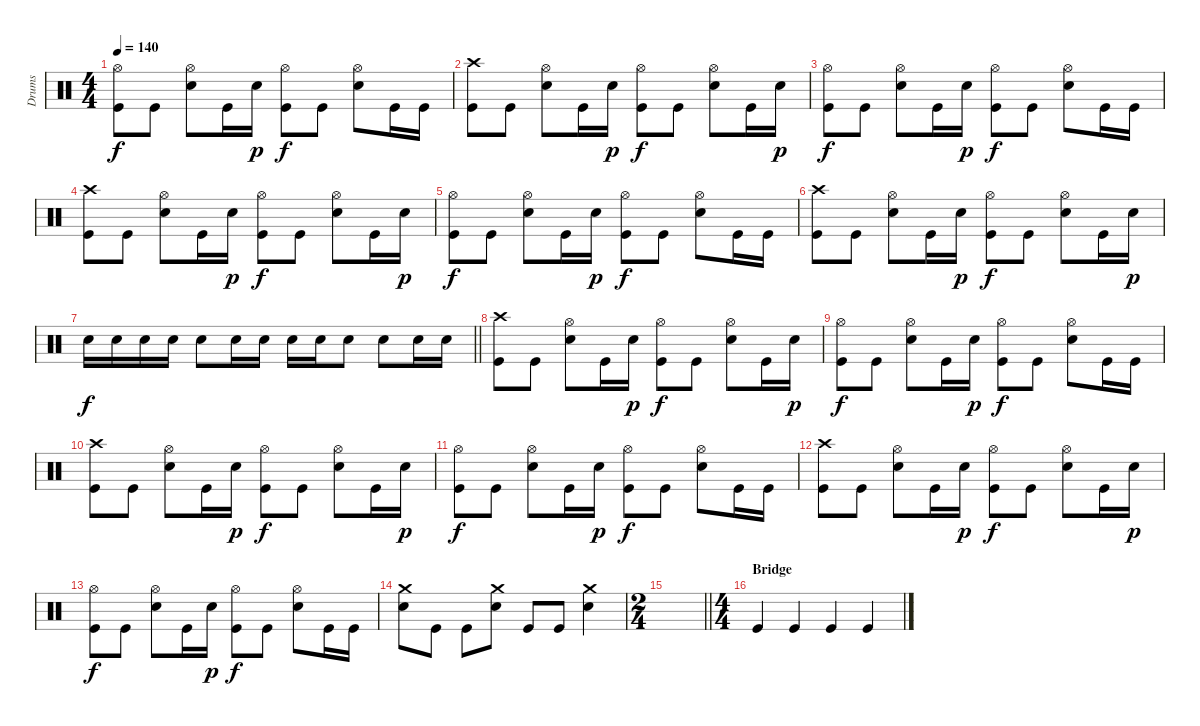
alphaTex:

\track ("Drums" "Drums") {instrument percussion}
\staff {score}
\articulation defaults
\ts (4 4)
\tempo 140
\clef neutral
\ks c
("Hi-Hat (open)" "Kick (hit)").8{dy f} "Kick (hit)".8 ("Hi-Hat (open)" "Electric Snare (hit)").8 "Kick (hit)".16 "Electric Snare (hit)".16{dy p} ("Hi-Hat (open)" "Kick (hit)").8{dy f} "Kick (hit)".8 ("Hi-Hat (open)" "Electric Snare (hit)").8 "Kick (hit)".16 "Kick (hit)".16 |
("Crash high (hit)" "Kick (hit)").8 "Kick (hit)".8 ("Hi-Hat (open)" "Electric Snare (hit)").8 "Kick (hit)".16 "Electric Snare (hit)".16{dy p} ("Hi-Hat (open)" "Kick (hit)").8{dy f} "Kick (hit)".8 ("Hi-Hat (open)" "Electric Snare (hit)").8 "Kick (hit)".16 "Electric Snare (hit)".16{dy p} |
("Hi-Hat (open)" "Kick (hit)").8{dy f} "Kick (hit)".8 ("Hi-Hat (open)" "Electric Snare (hit)").8 "Kick (hit)".16 "Electric Snare (hit)".16{dy p} ("Hi-Hat (open)" "Kick (hit)").8{dy f} "Kick (hit)".8 ("Hi-Hat (open)" "Electric Snare (hit)").8 "Kick (hit)".16 "Kick (hit)".16 |
("Crash high (hit)" "Kick (hit)").8 "Kick (hit)".8 ("Hi-Hat (open)" "Electric Snare (hit)").8 "Kick (hit)".16 "Electric Snare (hit)".16{dy p} ("Hi-Hat (open)" "Kick (hit)").8{dy f} "Kick (hit)".8 ("Hi-Hat (open)" "Electric Snare (hit)").8 "Kick (hit)".16 "Electric Snare (hit)".16{dy p} |
("Hi-Hat (open)" "Kick (hit)").8{dy f} "Kick (hit)".8 ("Hi-Hat (open)" "Electric Snare (hit)").8 "Kick (hit)".16 "Electric Snare (hit)".16{dy p} ("Hi-Hat (open)" "Kick (hit)").8{dy f} "Kick (hit)".8 ("Hi-Hat (open)" "Electric Snare (hit)").8 "Kick (hit)".16 "Kick (hit)".16 |
("Crash high (hit)" "Kick (hit)").8 "Kick (hit)".8 ("Hi-Hat (open)" "Electric Snare (hit)").8 "Kick (hit)".16 "Electric Snare (hit)".16{dy p} ("Hi-Hat (open)" "Kick (hit)").8{dy f} "Kick (hit)".8 ("Hi-Hat (open)" "Electric Snare (hit)").8 "Kick (hit)".16 "Electric Snare (hit)".16{dy p} |
\barLineRight lightlight "Electric Snare (hit)".16{dy f} "Electric Snare (hit)".16 "Electric Snare (hit)".16 "Electric Snare (hit)".16 "Electric Snare (hit)".8 "Electric Snare (hit)".16 "Electric Snare (hit)".16 "Electric Snare (hit)".16 "Electric Snare (hit)".16 "Electric Snare (hit)".8 "Electric Snare (hit)".8 "Electric Snare (hit)".16 "Electric Snare (hit)".16
|
("Crash high (hit)" "Kick (hit)").8 "Kick (hit)".8 ("Hi-Hat (open)" "Electric Snare (hit)").8 "Kick (hit)".16 "Electric Snare (hit)".16{dy p} ("Hi-Hat (open)" "Kick (hit)").8{dy f} "Kick (hit)".8 ("Hi-Hat (open)" "Electric Snare (hit)").8 "Kick (hit)".16 "Electric Snare (hit)".16{dy p} |
("Hi-Hat (open)" "Kick (hit)").8{dy f} "Kick (hit)".8 ("Hi-Hat (open)" "Electric Snare (hit)").8 "Kick (hit)".16 "Electric Snare (hit)".16{dy p} ("Hi-Hat (open)" "Kick (hit)").8{dy f} "Kick (hit)".8 ("Hi-Hat (open)" "Electric Snare (hit)").8 "Kick (hit)".16 "Kick (hit)".16 |
("Crash high (hit)" "Kick (hit)").8 "Kick (hit)".8 ("Hi-Hat (open)" "Electric Snare (hit)").8 "Kick (hit)".16 "Electric Snare (hit)".16{dy p} ("Hi-Hat (open)" "Kick (hit)").8{dy f} "Kick (hit)".8 ("Hi-Hat (open)" "Electric Snare (hit)").8 "Kick (hit)".16 "Electric Snare (hit)".16{dy p} |
("Hi-Hat (open)" "Kick (hit)").8{dy f} "Kick (hit)".8 ("Hi-Hat (open)" "Electric Snare (hit)").8 "Kick (hit)".16 "Electric Snare (hit)".16{dy p} ("Hi-Hat (open)" "Kick (hit)").8{dy f} "Kick (hit)".8 ("Hi-Hat (open)" "Electric Snare (hit)").8 "Kick (hit)".16 "Kick (hit)".16 |
("Crash high (hit)" "Kick (hit)").8 "Kick (hit)".8 ("Hi-Hat (open)" "Electric Snare (hit)").8 "Kick (hit)".16 "Electric Snare (hit)".16{dy p} ("Hi-Hat (open)" "Kick (hit)").8{dy f} "Kick (hit)".8 ("Hi-Hat (open)" "Electric Snare (hit)").8 "Kick (hit)".16 "Electric Snare (hit)".16{dy p} |
("Hi-Hat (open)" "Kick (hit)").8{dy f} "Kick (hit)".8 ("Hi-Hat (open)" "Electric Snare (hit)").8 "Kick (hit)".16 "Electric Snare (hit)".16{dy p} ("Hi-Hat (open)" "Kick (hit)").8{dy f} "Kick (hit)".8 ("Hi-Hat (open)" "Electric Snare (hit)").8 "Kick (hit)".16 "Kick (hit)".16 |
("Crash medium (hit)" "Electric Snare (hit)").8 "Kick (hit)".8 "Kick (hit)".8 ("Crash medium (hit)" "Electric Snare (hit)").8 "Kick (hit)".8 "Kick (hit)".8 ("Crash medium (hit)" "Electric Snare (hit)").4 |
\ts (2 4)
\barLineRight lightlight
|
\ts (4 4)
\section ("" "Bridge")
"Kick (hit)".4 "Kick (hit)".4 "Kick (hit)".4 "Kick (hit)".4
